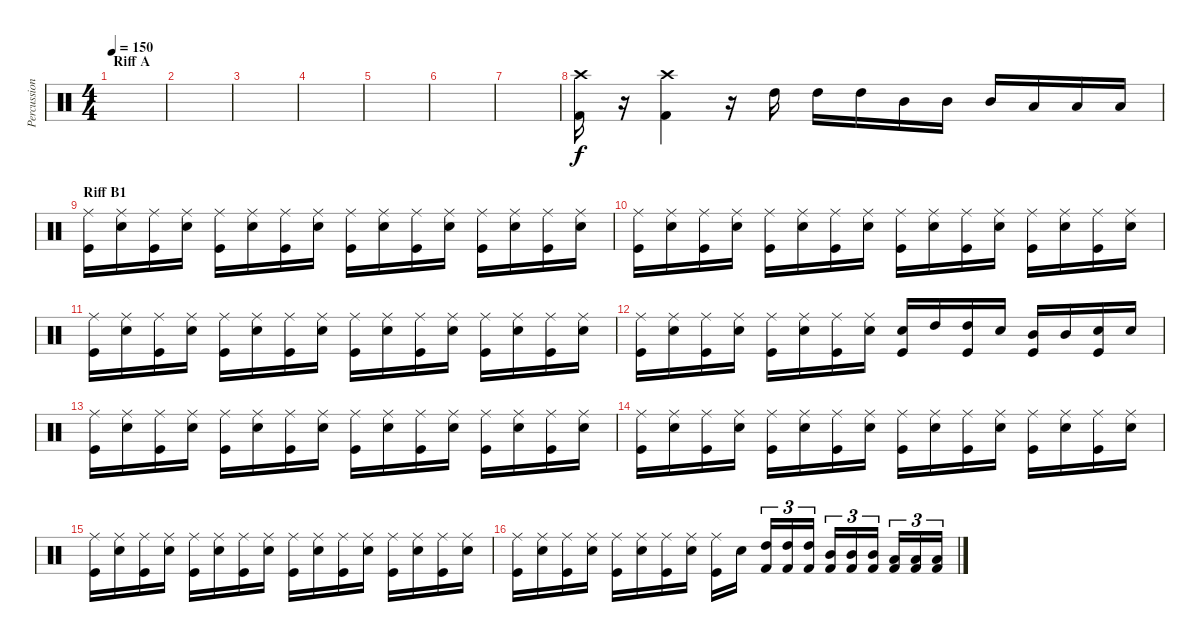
\track ("Percussions" "Percussion") {instrument percussion}
\staff {score}
\articulation defaults
\ts (4 4)
\section ("" "Riff A")
\tempo 150
\clef neutral
\ks c
|
|
|
|
|
|
|
("Crash high (hit)" "Kick (hit) 2").16 r.16 ("Crash high (hit)" "Kick (hit) 2").4 r.16 "High Tom (hit)".16 "High Tom (hit)".16 "High Tom (hit)".16 "Mid Tom (hit)".16 "Mid Tom (hit)".16 "Mid Tom (hit)".16 "Low Tom (hit)".16 "Low Tom (hit)".16 "Low Tom (hit)".16 |
\section ("" "Riff B1")
("Ride (middle)" "Kick (hit)").16 ("Ride (middle)" "Snare (hit) 2").16 ("Ride (middle)" "Kick (hit)").16 ("Ride (middle)" "Snare (hit) 2").16 ("Ride (middle)" "Kick (hit)").16 ("Ride (middle)" "Snare (hit) 2").16 ("Ride (middle)" "Kick (hit)").16 ("Ride (middle)" "Snare (hit) 2").16 ("Ride (middle)" "Kick (hit)").16 ("Ride (middle)" "Snare (hit) 2").16 ("Ride (middle)" "Kick (hit)").16 ("Ride (middle)" "Snare (hit) 2").16 ("Ride (middle)" "Kick (hit)").16 ("Ride (middle)" "Snare (hit) 2").16 ("Ride (middle)" "Kick (hit)").16 ("Ride (middle)" "Snare (hit) 2").16 |
("Ride (middle)" "Kick (hit)").16 ("Ride (middle)" "Snare (hit) 2").16 ("Ride (middle)" "Kick (hit)").16 ("Ride (middle)" "Snare (hit) 2").16 ("Ride (middle)" "Kick (hit)").16 ("Ride (middle)" "Snare (hit) 2").16 ("Ride (middle)" "Kick (hit)").16 ("Ride (middle)" "Snare (hit) 2").16 ("Ride (middle)" "Kick (hit)").16 ("Ride (middle)" "Snare (hit) 2").16 ("Ride (middle)" "Kick (hit)").16 ("Ride (middle)" "Snare (hit) 2").16 ("Ride (middle)" "Kick (hit)").16 ("Ride (middle)" "Snare (hit) 2").16 ("Ride (middle)" "Kick (hit)").16 ("Ride (middle)" "Snare (hit) 2").16 |
("Ride (middle)" "Kick (hit)").16 ("Ride (middle)" "Snare (hit) 2").16 ("Ride (middle)" "Kick (hit)").16 ("Ride (middle)" "Snare (hit) 2").16 ("Ride (middle)" "Kick (hit)").16 ("Ride (middle)" "Snare (hit) 2").16 ("Ride (middle)" "Kick (hit)").16 ("Ride (middle)" "Snare (hit) 2").16 ("Ride (middle)" "Kick (hit)").16 ("Ride (middle)" "Snare (hit) 2").16 ("Ride (middle)" "Kick (hit)").16 ("Ride (middle)" "Snare (hit) 2").16 ("Ride (middle)" "Kick (hit)").16 ("Ride (middle)" "Snare (hit) 2").16 ("Ride (middle)" "Kick (hit)").16 ("Ride (middle)" "Snare (hit) 2").16 |
("Ride (middle)" "Kick (hit)").16 ("Ride (middle)" "Snare (hit) 2").16 ("Ride (middle)" "Kick (hit)").16 ("Ride (middle)" "Snare (hit) 2").16 ("Ride (middle)" "Kick (hit)").16 ("Ride (middle)" "Snare (hit) 2").16 ("Ride (middle)" "Kick (hit)").16 ("Ride (middle)" "Snare (hit) 2").16 ("Snare (hit) 2" "Kick (hit)").16 "High Tom (hit)".16 ("High Tom (hit)" "Kick (hit)").16 "Snare (hit) 2".16 ("Mid Tom (hit)" "Kick (hit)").16 "Mid Tom (hit)".16 ("Snare (hit) 2" "Kick (hit)").16 "Snare (hit) 2".16 |
("Ride (middle)" "Kick (hit)").16 ("Ride (middle)" "Snare (hit) 2").16 ("Ride (middle)" "Kick (hit)").16 ("Ride (middle)" "Snare (hit) 2").16 ("Ride (middle)" "Kick (hit)").16 ("Ride (middle)" "Snare (hit) 2").16 ("Ride (middle)" "Kick (hit)").16 ("Ride (middle)" "Snare (hit) 2").16 ("Ride (middle)" "Kick (hit)").16 ("Ride (middle)" "Snare (hit) 2").16 ("Ride (middle)" "Kick (hit)").16 ("Ride (middle)" "Snare (hit) 2").16 ("Ride (middle)" "Kick (hit)").16 ("Ride (middle)" "Snare (hit) 2").16 ("Ride (middle)" "Kick (hit)").16 ("Ride (middle)" "Snare (hit) 2").16 |
("Ride (middle)" "Kick (hit)").16 ("Ride (middle)" "Snare (hit) 2").16 ("Ride (middle)" "Kick (hit)").16 ("Ride (middle)" "Snare (hit) 2").16 ("Ride (middle)" "Kick (hit)").16 ("Ride (middle)" "Snare (hit) 2").16 ("Ride (middle)" "Kick (hit)").16 ("Ride (middle)" "Snare (hit) 2").16 ("Ride (middle)" "Kick (hit)").16 ("Ride (middle)" "Snare (hit) 2").16 ("Ride (middle)" "Kick (hit)").16 ("Ride (middle)" "Snare (hit) 2").16 ("Ride (middle)" "Kick (hit)").16 ("Ride (middle)" "Snare (hit) 2").16 ("Ride (middle)" "Kick (hit)").16 ("Ride (middle)" "Snare (hit) 2").16 |
("Ride (middle)" "Kick (hit)").16 ("Ride (middle)" "Snare (hit) 2").16 ("Ride (middle)" "Kick (hit)").16 ("Ride (middle)" "Snare (hit) 2").16 ("Ride (middle)" "Kick (hit)").16 ("Ride (middle)" "Snare (hit) 2").16 ("Ride (middle)" "Kick (hit)").16 ("Ride (middle)" "Snare (hit) 2").16 ("Ride (middle)" "Kick (hit)").16 ("Ride (middle)" "Snare (hit) 2").16 ("Ride (middle)" "Kick (hit)").16 ("Ride (middle)" "Snare (hit) 2").16 ("Ride (middle)" "Kick (hit)").16 ("Ride (middle)" "Snare (hit) 2").16 ("Ride (middle)" "Kick (hit)").16 ("Ride (middle)" "Snare (hit) 2").16 |
("Ride (middle)" "Kick (hit)").16 ("Ride (middle)" "Snare (hit) 2").16 ("Ride (middle)" "Kick (hit)").16 ("Ride (middle)" "Snare (hit) 2").16 ("Ride (middle)" "Kick (hit)").16 ("Ride (middle)" "Snare (hit) 2").16 ("Ride (middle)" "Kick (hit)").16 ("Ride (middle)" "Snare (hit) 2").16 ("Ride (middle)" "Kick (hit)").16 "Snare (hit) 2".16 ("High Tom (hit)" "Kick (hit) 2").16{tu (3 2)} ("High Tom (hit)" "Kick (hit) 2").16{tu (3 2)} ("High Tom (hit)" "Kick (hit) 2").16{tu (3 2)} ("Mid Tom (hit)" "Kick (hit) 2").16{tu (3 2)} ("Mid Tom (hit)" "Kick (hit) 2").16{tu (3 2)} ("Mid Tom (hit)" "Kick (hit) 2").16{tu (3 2)} ("Low Tom (hit)" "Kick (hit) 2").16{tu (3 2)} ("Low Tom (hit)" "Kick (hit) 2").16{tu (3 2)} ("Low Tom (hit)" "Kick (hit) 2").16{tu (3 2)}
